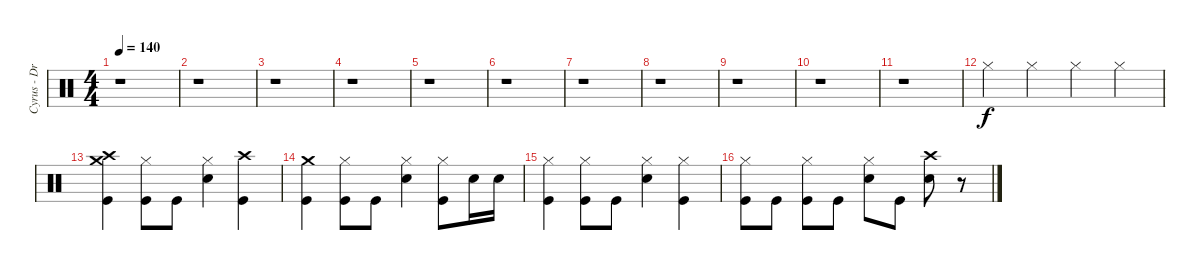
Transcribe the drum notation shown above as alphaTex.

\track ("Cyrus - Drums" "Cyrus - Dr") {instrument percussion}
\staff {score}
\articulation defaults
\ts (4 4)
\tempo 140
\clef neutral
\ks c
r.1{dy f} |
r.1 |
r.1 |
r.1 |
r.1 |
r.1 |
r.1 |
r.1 |
r.1 |
r.1 |
r.1 |
"Hi-Hat (closed)".4 "Hi-Hat (closed)".4 "Hi-Hat (closed)".4 "Hi-Hat (closed)".4 |
("Crash medium (hit)" "Crash high (hit)" "Kick (hit)").4 ("Hi-Hat (closed)" "Kick (hit)").8 "Kick (hit)".8 ("Hi-Hat (closed)" "Electric Snare (hit)").4 ("Crash high (hit)" "Kick (hit)").4 |
("Crash medium (hit)" "Kick (hit)").4 ("Hi-Hat (closed)" "Kick (hit)").8 "Kick (hit)".8 ("Hi-Hat (closed)" "Electric Snare (hit)").4 ("Hi-Hat (closed)" "Kick (hit)").8 "Electric Snare (hit)".16 "Electric Snare (hit)".16 |
("Hi-Hat (closed)" "Kick (hit)").4 ("Hi-Hat (closed)" "Kick (hit)").8 "Kick (hit)".8 ("Hi-Hat (closed)" "Electric Snare (hit)").4 ("Hi-Hat (closed)" "Kick (hit)").4 |
("Hi-Hat (closed)" "Kick (hit)").8 "Kick (hit)".8 ("Hi-Hat (closed)" "Kick (hit)").8 "Kick (hit)".8 ("Hi-Hat (closed)" "Electric Snare (hit)").8 "Kick (hit)".8 ("Crash high (hit)" "Electric Snare (hit)").8 r.8
